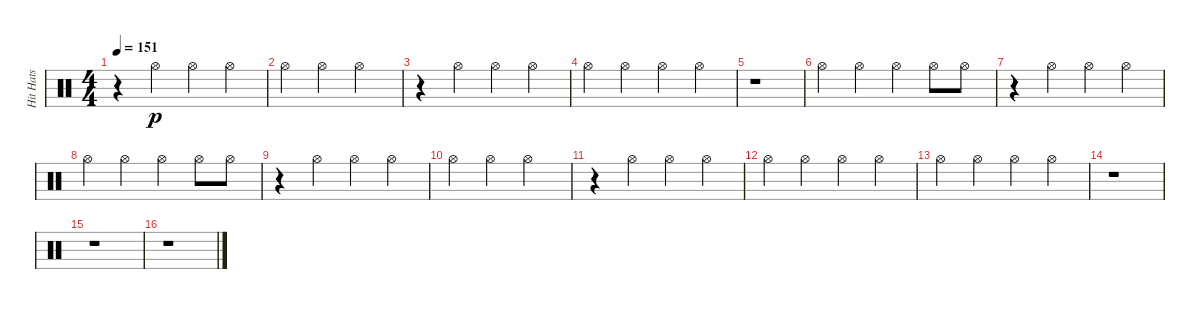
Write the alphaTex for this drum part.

\track ("Hit Hats" "Hit Hats") {instrument percussion}
\staff {score}
\articulation defaults
\ts (4 4)
\tempo 151
\clef neutral
\ks c
r.4{dy p} "Hi-Hat (open)".4 "Hi-Hat (open)".4 "Hi-Hat (open)".4 |
"Hi-Hat (open)".4 "Hi-Hat (open)".4 "Hi-Hat (open)".2 |
r.4 "Hi-Hat (open)".4 "Hi-Hat (open)".4 "Hi-Hat (open)".4 |
"Hi-Hat (open)".4 "Hi-Hat (open)".4 "Hi-Hat (open)".4 "Hi-Hat (open)".4 |
r.1 |
"Hi-Hat (open)".4 "Hi-Hat (open)".4 "Hi-Hat (open)".4 "Hi-Hat (open)".8 "Hi-Hat (open)".8 |
r.4 "Hi-Hat (open)".4 "Hi-Hat (open)".4 "Hi-Hat (open)".4 |
"Hi-Hat (open)".4 "Hi-Hat (open)".4 "Hi-Hat (open)".4 "Hi-Hat (open)".8 "Hi-Hat (open)".8 |
r.4 "Hi-Hat (open)".4 "Hi-Hat (open)".4 "Hi-Hat (open)".4 |
"Hi-Hat (open)".4 "Hi-Hat (open)".4 "Hi-Hat (open)".2 |
r.4 "Hi-Hat (open)".4 "Hi-Hat (open)".4 "Hi-Hat (open)".4 |
"Hi-Hat (open)".4 "Hi-Hat (open)".4 "Hi-Hat (open)".4 "Hi-Hat (open)".4 |
"Hi-Hat (open)".4 "Hi-Hat (open)".4 "Hi-Hat (open)".4 "Hi-Hat (open)".4 |
r.1 |
r.1 |
r.1
